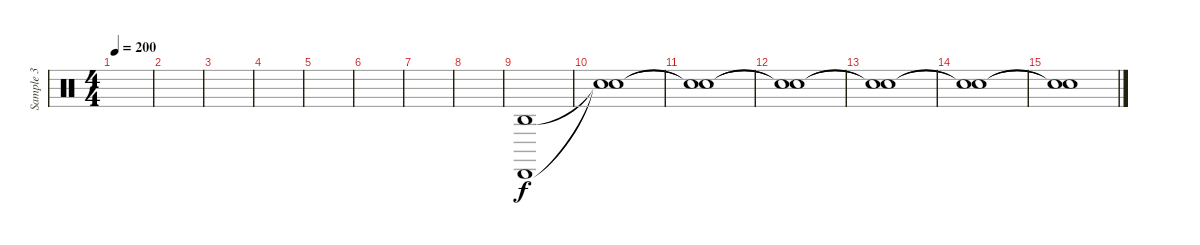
\track ("Sample 3" "Sample 3") {instrument percussion}
\staff {score}
\articulation defaults
\ts (4 4)
\tempo 200
\clef neutral
\ks c
|
|
|
|
|
|
|
|
("Agogo high (hit)" "Cabasa (hit)").1{dy f} |
("Snare (hit)"{t} "Snare (hit)"{t}).1 |
("Snare (hit)"{t} "Snare (hit)"{t}).1 |
("Snare (hit)"{t} "Snare (hit)"{t}).1 |
("Snare (hit)"{t} "Snare (hit)"{t}).1 |
("Snare (hit)"{t} "Snare (hit)"{t}).1 |
("Snare (hit)"{t} "Snare (hit)"{t}).1
